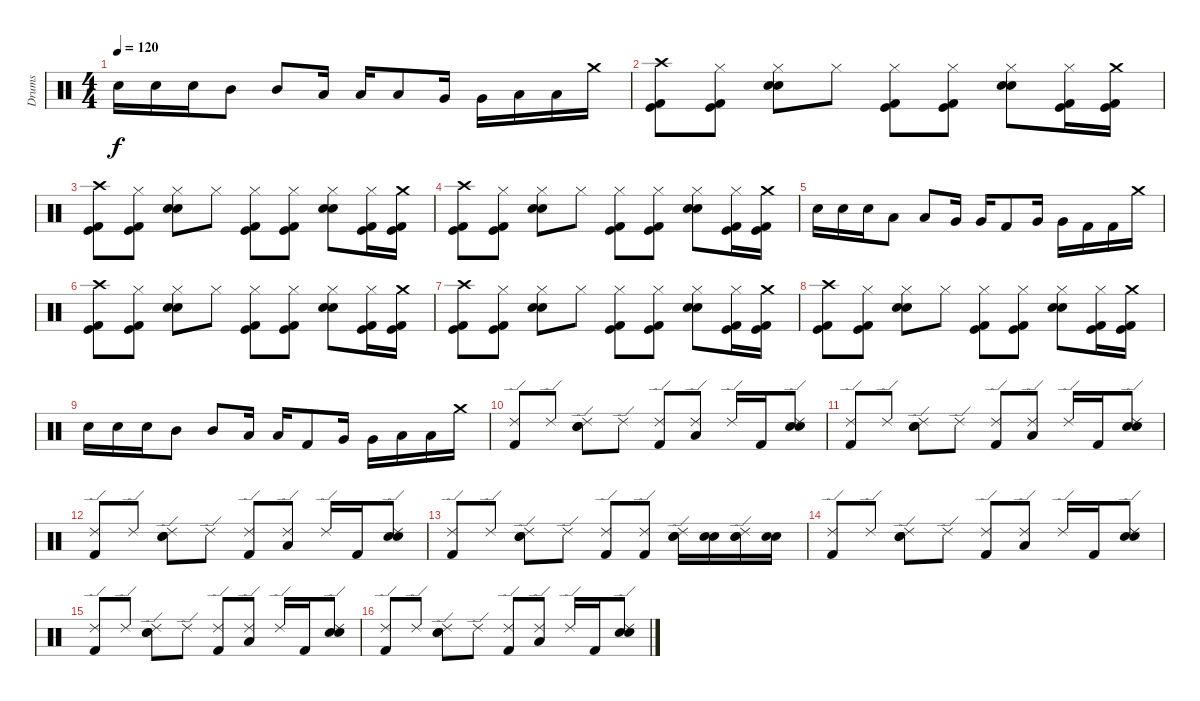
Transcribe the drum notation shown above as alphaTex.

\track ("Drums" "Drums") {instrument percussion}
\staff {score}
\articulation defaults
\ts (4 4)
\tempo 120
\clef neutral
\ks c "Electric Snare (hit)".16{dy f} "Electric Snare (hit)".16 "Electric Snare (hit)".16 "Mid Tom (hit)".8 "Mid Tom (hit)".8 "Low Tom (hit)".16 "Low Tom (hit)".16 "Low Tom (hit)".8 "Very Low Tom (hit)".16 "Very Low Tom (hit)".16 "Low Floor Tom (hit)".16 "Low Floor Tom (hit)".16 "Crash medium (hit)".16
|
("Crash high (hit)" "Kick (hit) 2" "Kick (hit)").8 ("Hi-Hat (closed)" "Kick (hit) 2" "Kick (hit)").8 ("Snare (hit) 2" "Hi-Hat (closed)" "Electric Snare (hit)").8 "Hi-Hat (closed)".8 ("Hi-Hat (closed)" "Kick (hit) 2" "Kick (hit)").8 ("Hi-Hat (closed)" "Kick (hit) 2" "Kick (hit)").8 ("Snare (hit) 2" "Hi-Hat (closed)" "Electric Snare (hit)").8 ("Hi-Hat (closed)" "Kick (hit) 2" "Kick (hit)").16 ("Crash medium (hit)" "Kick (hit) 2" "Kick (hit)").16 |
("Crash high (hit)" "Kick (hit) 2" "Kick (hit)").8 ("Hi-Hat (closed)" "Kick (hit) 2" "Kick (hit)").8 ("Snare (hit) 2" "Hi-Hat (closed)" "Electric Snare (hit)").8 "Hi-Hat (closed)".8 ("Hi-Hat (closed)" "Kick (hit) 2" "Kick (hit)").8 ("Hi-Hat (closed)" "Kick (hit) 2" "Kick (hit)").8 ("Snare (hit) 2" "Hi-Hat (closed)" "Electric Snare (hit)").8 ("Hi-Hat (closed)" "Kick (hit) 2" "Kick (hit)").16 ("Crash medium (hit)" "Kick (hit) 2" "Kick (hit)").16 |
("Crash high (hit)" "Kick (hit) 2" "Kick (hit)").8 ("Hi-Hat (closed)" "Kick (hit) 2" "Kick (hit)").8 ("Snare (hit) 2" "Hi-Hat (closed)" "Electric Snare (hit)").8 "Hi-Hat (closed)".8 ("Hi-Hat (closed)" "Kick (hit) 2" "Kick (hit)").8 ("Hi-Hat (closed)" "Kick (hit) 2" "Kick (hit)").8 ("Snare (hit) 2" "Hi-Hat (closed)" "Electric Snare (hit)").8 ("Hi-Hat (closed)" "Kick (hit) 2" "Kick (hit)").16 ("Crash medium (hit)" "Kick (hit) 2" "Kick (hit)").16 |
"Snare (hit) 2".16 "Snare (hit) 2".16 "Snare (hit) 2".16 "Low Tom (hit)".8 "Low Tom (hit)".8 "Very Low Tom (hit)".16 "Very Low Tom (hit)".16 "Kick (hit) 2".8 "Very Low Tom (hit)".16 "Very Low Tom (hit)".16 "Kick (hit) 2".16 "Kick (hit) 2".16 "Crash medium (hit)".16 |
("Crash high (hit)" "Kick (hit) 2" "Kick (hit)").8 ("Hi-Hat (closed)" "Kick (hit) 2" "Kick (hit)").8 ("Snare (hit) 2" "Hi-Hat (closed)" "Electric Snare (hit)").8 "Hi-Hat (closed)".8 ("Hi-Hat (closed)" "Kick (hit) 2" "Kick (hit)").8 ("Hi-Hat (closed)" "Kick (hit) 2" "Kick (hit)").8 ("Snare (hit) 2" "Hi-Hat (closed)" "Electric Snare (hit)").8 ("Hi-Hat (closed)" "Kick (hit) 2" "Kick (hit)").16 ("Crash medium (hit)" "Kick (hit) 2" "Kick (hit)").16 |
("Crash high (hit)" "Kick (hit) 2" "Kick (hit)").8 ("Hi-Hat (closed)" "Kick (hit) 2" "Kick (hit)").8 ("Snare (hit) 2" "Hi-Hat (closed)" "Electric Snare (hit)").8 "Hi-Hat (closed)".8 ("Hi-Hat (closed)" "Kick (hit) 2" "Kick (hit)").8 ("Hi-Hat (closed)" "Kick (hit) 2" "Kick (hit)").8 ("Snare (hit) 2" "Hi-Hat (closed)" "Electric Snare (hit)").8 ("Hi-Hat (closed)" "Kick (hit) 2" "Kick (hit)").16 ("Crash medium (hit)" "Kick (hit) 2" "Kick (hit)").16 |
("Crash high (hit)" "Kick (hit) 2" "Kick (hit)").8 ("Hi-Hat (closed)" "Kick (hit) 2" "Kick (hit)").8 ("Snare (hit) 2" "Hi-Hat (closed)" "Electric Snare (hit)").8 "Hi-Hat (closed)".8 ("Hi-Hat (closed)" "Kick (hit) 2" "Kick (hit)").8 ("Hi-Hat (closed)" "Kick (hit) 2" "Kick (hit)").8 ("Snare (hit) 2" "Hi-Hat (closed)" "Electric Snare (hit)").8 ("Hi-Hat (closed)" "Kick (hit) 2" "Kick (hit)").16 ("Crash medium (hit)" "Kick (hit) 2" "Kick (hit)").16 |
"Electric Snare (hit)".16 "Electric Snare (hit)".16 "Electric Snare (hit)".16 "Mid Tom (hit)".8 "Mid Tom (hit)".8 "Low Tom (hit)".16 "Low Tom (hit)".16 "Kick (hit) 2".8 "Very Low Tom (hit)".16 "Very Low Tom (hit)".16 "Low Floor Tom (hit)".16 "Low Floor Tom (hit)".16 "Crash medium (hit)".16 |
("Ride (edge) 2" "Kick (hit) 2").8 "Ride (edge) 2".8 ("Ride (edge) 2" "Snare (hit) 2" "Snare (hit) 2").8 "Ride (edge) 2".8 ("Ride (edge) 2" "Kick (hit) 2").8 ("Ride (edge) 2" "Low Tom (hit)").8 "Ride (edge) 2".16 "Kick (hit) 2".16 ("Ride (edge) 2" "Snare (hit) 2" "Snare (hit) 2").8 |
("Ride (edge) 2" "Kick (hit) 2").8 "Ride (edge) 2".8 ("Ride (edge) 2" "Snare (hit) 2" "Snare (hit) 2").8 "Ride (edge) 2".8 ("Ride (edge) 2" "Kick (hit) 2").8 ("Ride (edge) 2" "Low Tom (hit)").8 "Ride (edge) 2".16 "Kick (hit) 2".16 ("Ride (edge) 2" "Snare (hit) 2" "Snare (hit) 2").8 |
("Ride (edge) 2" "Kick (hit) 2").8 "Ride (edge) 2".8 ("Ride (edge) 2" "Snare (hit) 2" "Snare (hit) 2").8 "Ride (edge) 2".8 ("Ride (edge) 2" "Kick (hit) 2").8 ("Ride (edge) 2" "Low Tom (hit)").8 "Ride (edge) 2".16 "Kick (hit) 2".16 ("Ride (edge) 2" "Snare (hit) 2" "Snare (hit) 2").8 |
("Ride (edge) 2" "Kick (hit) 2").8 "Ride (edge) 2".8 ("Ride (edge) 2" "Snare (hit) 2" "Snare (hit) 2").8 "Ride (edge) 2".8 ("Ride (edge) 2" "Kick (hit) 2").8 ("Ride (edge) 2" "Kick (hit) 2").8 ("Ride (edge) 2" "Snare (hit) 2" "Snare (hit) 2").16 ("Snare (hit) 2" "Snare (hit) 2").16 ("Ride (edge) 2" "Snare (hit) 2" "Snare (hit) 2").16 ("Snare (hit) 2" "Snare (hit) 2").16 |
("Ride (edge) 2" "Kick (hit) 2").8 "Ride (edge) 2".8 ("Ride (edge) 2" "Snare (hit) 2" "Snare (hit) 2").8 "Ride (edge) 2".8 ("Ride (edge) 2" "Kick (hit) 2").8 ("Ride (edge) 2" "Low Tom (hit)").8 "Ride (edge) 2".16 "Kick (hit) 2".16 ("Ride (edge) 2" "Snare (hit) 2" "Snare (hit) 2").8 |
("Ride (edge) 2" "Kick (hit) 2").8 "Ride (edge) 2".8 ("Ride (edge) 2" "Snare (hit) 2" "Snare (hit) 2").8 "Ride (edge) 2".8 ("Ride (edge) 2" "Kick (hit) 2").8 ("Ride (edge) 2" "Low Tom (hit)").8 "Ride (edge) 2".16 "Kick (hit) 2".16 ("Ride (edge) 2" "Snare (hit) 2" "Snare (hit) 2").8 |
("Ride (edge) 2" "Kick (hit) 2").8 "Ride (edge) 2".8 ("Ride (edge) 2" "Snare (hit) 2" "Snare (hit) 2").8 "Ride (edge) 2".8 ("Ride (edge) 2" "Kick (hit) 2").8 ("Ride (edge) 2" "Low Tom (hit)").8 "Ride (edge) 2".16 "Kick (hit) 2".16 ("Ride (edge) 2" "Snare (hit) 2" "Snare (hit) 2").8
